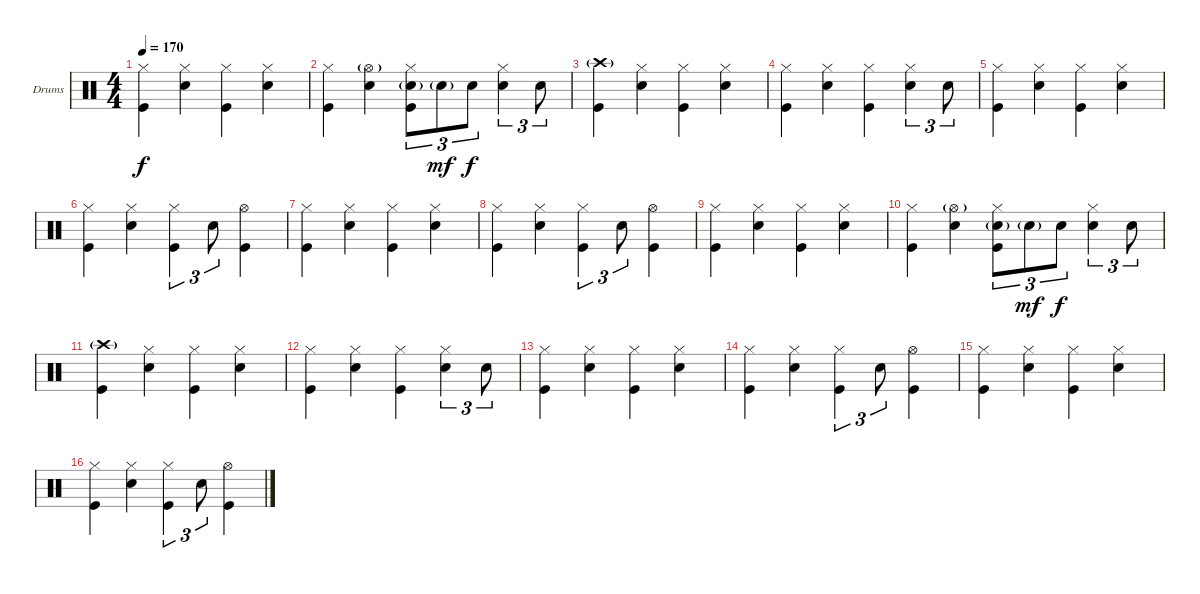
\bracketExtendMode groupsimilarinstruments
\firstSystemTrackNameOrientation horizontal
\otherSystemsTrackNameOrientation horizontal
\track ("Dave Grohl [Drumms]" "Drums") {instrument percussion}
\staff {score}
\articulation defaults
\ts (4 4)
\tempo 170
\clef neutral
\ks c
("Hi-Hat (closed)" "Kick (hit)").4{dy f} ("Hi-Hat (closed)" "Snare (hit) 2").4 ("Hi-Hat (closed)" "Kick (hit)").4 ("Hi-Hat (closed)" "Snare (hit) 2").4 |
("Hi-Hat (closed)" "Kick (hit)").4 ("Hi-Hat (open)"{g} "Snare (hit) 2").4 ("Hi-Hat (closed)" "Snare (hit) 2"{g} "Kick (hit)").8{tu (3 2)} "Snare (hit) 2"{g}.8{tu (3 2) dy mf} "Snare (hit) 2".8{tu (3 2) dy f} ("Hi-Hat (closed)" "Snare (hit) 2").4{tu (3 2)} "Snare (hit) 2".8{tu (3 2)} |
("Crash high (hit)"{g} "Kick (hit)").4 ("Hi-Hat (closed)" "Snare (hit) 2").4 ("Hi-Hat (closed)" "Kick (hit)").4 ("Hi-Hat (closed)" "Snare (hit) 2").4 |
("Hi-Hat (closed)" "Kick (hit)").4 ("Hi-Hat (closed)" "Snare (hit) 2").4 ("Hi-Hat (closed)" "Kick (hit)").4 ("Hi-Hat (closed)" "Snare (hit) 2").4{tu (3 2)} "Snare (hit) 2".8{tu (3 2)} |
("Hi-Hat (closed)" "Kick (hit)").4 ("Hi-Hat (closed)" "Snare (hit) 2").4 ("Hi-Hat (closed)" "Kick (hit)").4 ("Hi-Hat (closed)" "Snare (hit) 2").4 |
("Hi-Hat (closed)" "Kick (hit)").4 ("Hi-Hat (closed)" "Snare (hit) 2").4 ("Hi-Hat (closed)" "Kick (hit)").4{tu (3 2)} "Snare (hit) 2".8{tu (3 2)} ("Hi-Hat (open)" "Kick (hit)").4 |
("Hi-Hat (closed)" "Kick (hit)").4 ("Hi-Hat (closed)" "Snare (hit) 2").4 ("Hi-Hat (closed)" "Kick (hit)").4 ("Hi-Hat (closed)" "Snare (hit) 2").4 |
("Hi-Hat (closed)" "Kick (hit)").4 ("Hi-Hat (closed)" "Snare (hit) 2").4 ("Hi-Hat (closed)" "Kick (hit)").4{tu (3 2)} "Snare (hit) 2".8{tu (3 2)} ("Hi-Hat (open)" "Kick (hit)").4 |
("Hi-Hat (closed)" "Kick (hit)").4 ("Hi-Hat (closed)" "Snare (hit) 2").4 ("Hi-Hat (closed)" "Kick (hit)").4 ("Hi-Hat (closed)" "Snare (hit) 2").4 |
("Hi-Hat (closed)" "Kick (hit)").4 ("Hi-Hat (open)"{g} "Snare (hit) 2").4 ("Hi-Hat (closed)" "Snare (hit) 2"{g} "Kick (hit)").8{tu (3 2)} "Snare (hit) 2"{g}.8{tu (3 2) dy mf} "Snare (hit) 2".8{tu (3 2) dy f} ("Hi-Hat (closed)" "Snare (hit) 2").4{tu (3 2)} "Snare (hit) 2".8{tu (3 2)} |
("Crash high (hit)"{g} "Kick (hit)").4 ("Hi-Hat (closed)" "Snare (hit) 2").4 ("Hi-Hat (closed)" "Kick (hit)").4 ("Hi-Hat (closed)" "Snare (hit) 2").4 |
("Hi-Hat (closed)" "Kick (hit)").4 ("Hi-Hat (closed)" "Snare (hit) 2").4 ("Hi-Hat (closed)" "Kick (hit)").4 ("Hi-Hat (closed)" "Snare (hit) 2").4{tu (3 2)} "Snare (hit) 2".8{tu (3 2)} |
("Hi-Hat (closed)" "Kick (hit)").4 ("Hi-Hat (closed)" "Snare (hit) 2").4 ("Hi-Hat (closed)" "Kick (hit)").4 ("Hi-Hat (closed)" "Snare (hit) 2").4 |
("Hi-Hat (closed)" "Kick (hit)").4 ("Hi-Hat (closed)" "Snare (hit) 2").4 ("Hi-Hat (closed)" "Kick (hit)").4{tu (3 2)} "Snare (hit) 2".8{tu (3 2)} ("Hi-Hat (open)" "Kick (hit)").4 |
("Hi-Hat (closed)" "Kick (hit)").4 ("Hi-Hat (closed)" "Snare (hit) 2").4 ("Hi-Hat (closed)" "Kick (hit)").4 ("Hi-Hat (closed)" "Snare (hit) 2").4 |
("Hi-Hat (closed)" "Kick (hit)").4 ("Hi-Hat (closed)" "Snare (hit) 2").4 ("Hi-Hat (closed)" "Kick (hit)").4{tu (3 2)} "Snare (hit) 2".8{tu (3 2)} ("Hi-Hat (open)" "Kick (hit)").4
